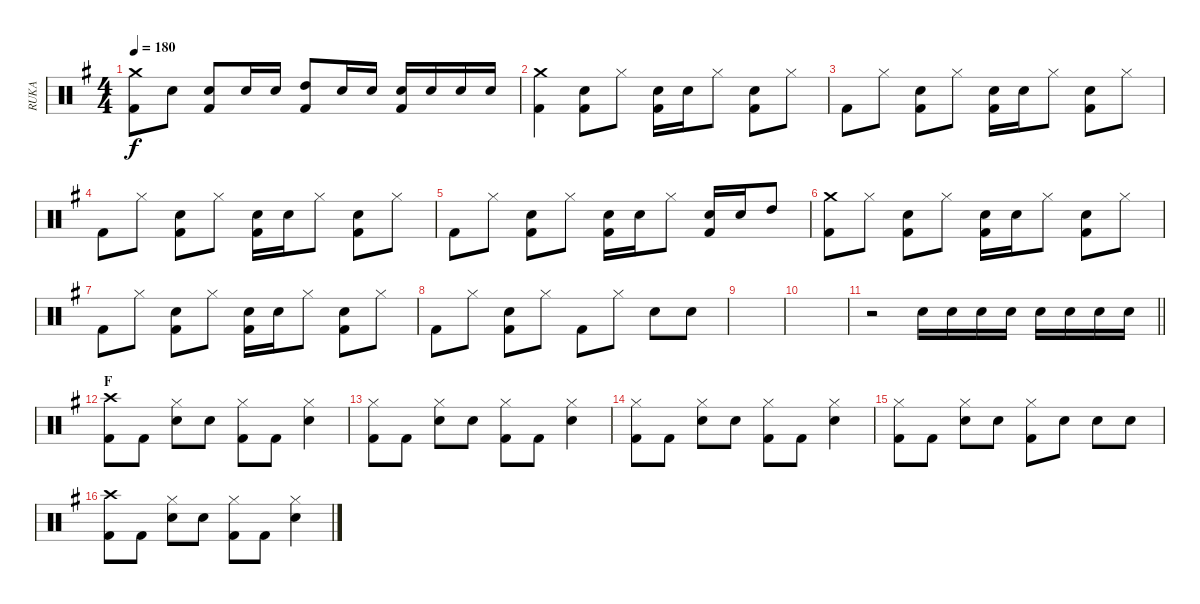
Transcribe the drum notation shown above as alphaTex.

\track ("RUKA" "RUKA") {instrument percussion}
\staff {score}
\articulation defaults
\ts (4 4)
\tempo 180
\clef neutral
\ks g
("Crash medium (hit)" "Kick (hit) 2").8{dy f} "Snare (hit) 2".8 ("Snare (hit) 2" "Kick (hit) 2").8 "Snare (hit) 2".16 "Snare (hit) 2".16 ("High Tom (hit)" "Kick (hit) 2").8 "Snare (hit) 2".16 "Snare (hit) 2".16 ("Snare (hit) 2" "Kick (hit) 2").16 "Snare (hit) 2".16 "Snare (hit) 2".16 "Snare (hit) 2".16 |
("Crash medium (hit)" "Kick (hit) 2").4 ("Snare (hit) 2" "Kick (hit) 2").8 "Hi-Hat (closed)".8 ("Snare (hit) 2" "Kick (hit) 2").16 "Snare (hit) 2".16 "Hi-Hat (closed)".8 ("Snare (hit) 2" "Kick (hit) 2").8 "Hi-Hat (closed)".8 |
"Kick (hit) 2".8 "Hi-Hat (closed)".8 ("Snare (hit) 2" "Kick (hit) 2").8 "Hi-Hat (closed)".8 ("Snare (hit) 2" "Kick (hit) 2").16 "Snare (hit) 2".16 "Hi-Hat (closed)".8 ("Snare (hit) 2" "Kick (hit) 2").8 "Hi-Hat (closed)".8 |
"Kick (hit) 2".8 "Hi-Hat (closed)".8 ("Snare (hit) 2" "Kick (hit) 2").8 "Hi-Hat (closed)".8 ("Snare (hit) 2" "Kick (hit) 2").16 "Snare (hit) 2".16 "Hi-Hat (closed)".8 ("Snare (hit) 2" "Kick (hit) 2").8 "Hi-Hat (closed)".8 |
"Kick (hit) 2".8 "Hi-Hat (closed)".8 ("Snare (hit) 2" "Kick (hit) 2").8 "Hi-Hat (closed)".8 ("Snare (hit) 2" "Kick (hit) 2").16 "Snare (hit) 2".16 "Hi-Hat (closed)".8 ("Snare (hit) 2" "Kick (hit) 2").16 "Snare (hit) 2".16 "High Tom (hit)".8 |
("Crash medium (hit)" "Kick (hit) 2").8 "Hi-Hat (closed)".8 ("Snare (hit) 2" "Kick (hit) 2").8 "Hi-Hat (closed)".8 ("Snare (hit) 2" "Kick (hit) 2").16 "Snare (hit) 2".16 "Hi-Hat (closed)".8 ("Snare (hit) 2" "Kick (hit) 2").8 "Hi-Hat (closed)".8 |
"Kick (hit) 2".8 "Hi-Hat (closed)".8 ("Snare (hit) 2" "Kick (hit) 2").8 "Hi-Hat (closed)".8 ("Snare (hit) 2" "Kick (hit) 2").16 "Snare (hit) 2".16 "Hi-Hat (closed)".8 ("Snare (hit) 2" "Kick (hit) 2").8 "Hi-Hat (closed)".8 |
"Kick (hit) 2".8 "Hi-Hat (closed)".8 ("Snare (hit) 2" "Kick (hit) 2").8 "Hi-Hat (closed)".8 "Kick (hit) 2".8 "Hi-Hat (closed)".8 "Snare (hit) 2".8 "Snare (hit) 2".8 |
|
|
\barLineRight lightlight
r.2 "Snare (hit) 2".16 "Snare (hit) 2".16 "Snare (hit) 2".16 "Snare (hit) 2".16 "Snare (hit) 2".16 "Snare (hit) 2".16 "Snare (hit) 2".16 "Snare (hit) 2".16 |
\section ("" "F")
("Crash high (hit)" "Kick (hit) 2").8 "Kick (hit) 2".8 ("Hi-Hat (closed)" "Snare (hit) 2").8 "Snare (hit) 2".8 ("Hi-Hat (closed)" "Kick (hit) 2").8 "Kick (hit) 2".8 ("Hi-Hat (closed)" "Snare (hit) 2").4 |
("Hi-Hat (closed)" "Kick (hit) 2").8 "Kick (hit) 2".8 ("Hi-Hat (closed)" "Snare (hit) 2").8 "Snare (hit) 2".8 ("Hi-Hat (closed)" "Kick (hit) 2").8 "Kick (hit) 2".8 ("Hi-Hat (closed)" "Snare (hit) 2").4 |
("Hi-Hat (closed)" "Kick (hit) 2").8 "Kick (hit) 2".8 ("Hi-Hat (closed)" "Snare (hit) 2").8 "Snare (hit) 2".8 ("Hi-Hat (closed)" "Kick (hit) 2").8 "Kick (hit) 2".8 ("Hi-Hat (closed)" "Snare (hit) 2").4 |
("Hi-Hat (closed)" "Kick (hit) 2").8 "Kick (hit) 2".8 ("Hi-Hat (closed)" "Snare (hit) 2").8 "Snare (hit) 2".8 ("Hi-Hat (closed)" "Kick (hit) 2").8 "Snare (hit) 2".8 "Snare (hit) 2".8 "Snare (hit) 2".8 |
("Crash high (hit)" "Kick (hit) 2").8 "Kick (hit) 2".8 ("Hi-Hat (closed)" "Snare (hit) 2").8 "Snare (hit) 2".8 ("Hi-Hat (closed)" "Kick (hit) 2").8 "Kick (hit) 2".8 ("Hi-Hat (closed)" "Snare (hit) 2").4
